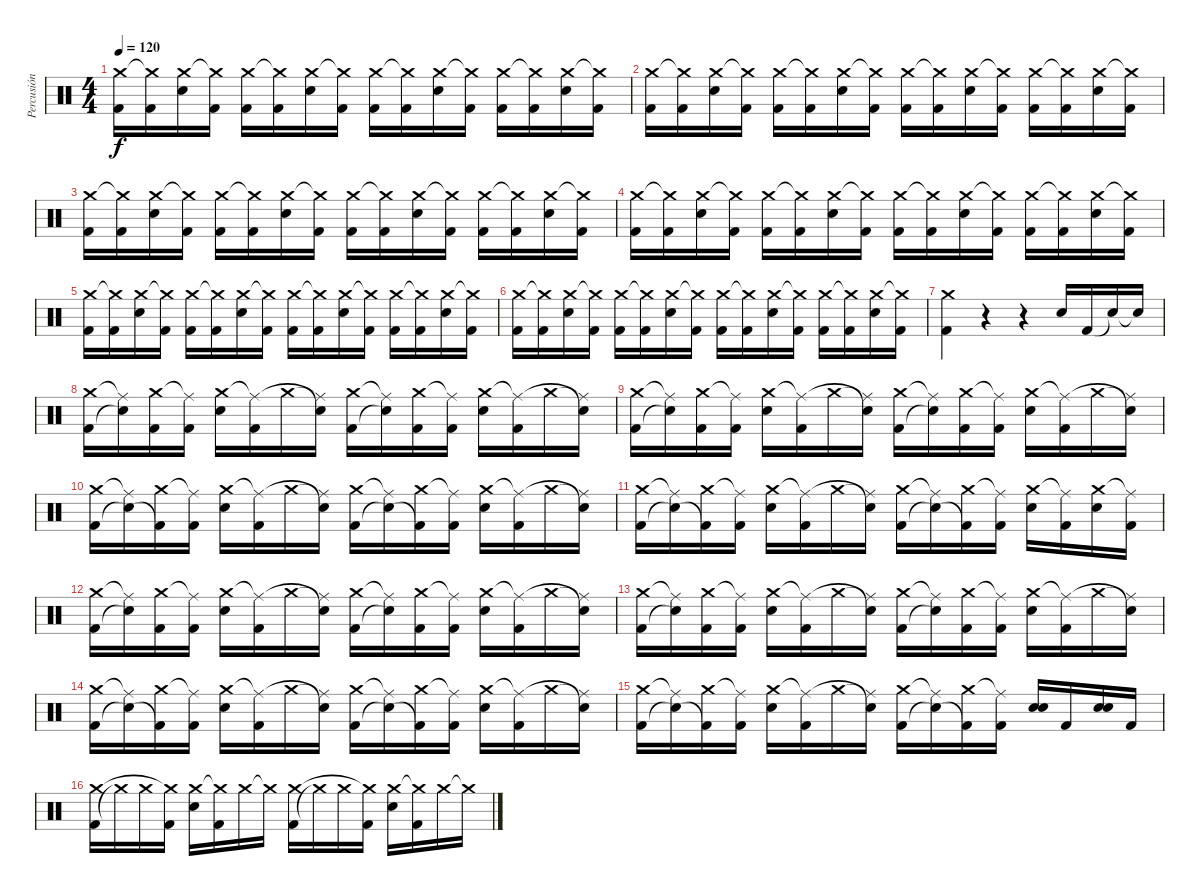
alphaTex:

\track ("Percusión" "Percusión") {instrument percussion}
\staff {score}
\articulation defaults
\ts (4 4)
\tempo 120
\clef neutral
\ks c
("Kick (hit) 2" "Crash medium (hit)").16{dy f} ("Kick (hit) 2" "Crash medium (hit)"{t}).16 ("Electric Snare (hit)" "Crash medium (hit)").16 ("Kick (hit) 2" "Crash medium (hit)"{t}).16 ("Kick (hit) 2" "Crash medium (hit)").16 ("Kick (hit) 2" "Crash medium (hit)"{t}).16 ("Electric Snare (hit)" "Crash medium (hit)").16 ("Kick (hit) 2" "Crash medium (hit)"{t}).16 ("Kick (hit) 2" "Crash medium (hit)").16 ("Kick (hit) 2" "Crash medium (hit)"{t}).16 ("Electric Snare (hit)" "Crash medium (hit)").16 ("Kick (hit) 2" "Crash medium (hit)"{t}).16 ("Kick (hit) 2" "Crash medium (hit)").16 ("Kick (hit) 2" "Crash medium (hit)"{t}).16 ("Electric Snare (hit)" "Crash medium (hit)").16 ("Kick (hit) 2" "Crash medium (hit)"{t}).16 |
("Kick (hit) 2" "Crash medium (hit)").16 ("Kick (hit) 2" "Crash medium (hit)"{t}).16 ("Electric Snare (hit)" "Crash medium (hit)").16 ("Kick (hit) 2" "Crash medium (hit)"{t}).16 ("Kick (hit) 2" "Crash medium (hit)").16 ("Kick (hit) 2" "Crash medium (hit)"{t}).16 ("Electric Snare (hit)" "Crash medium (hit)").16 ("Kick (hit) 2" "Crash medium (hit)"{t}).16 ("Kick (hit) 2" "Crash medium (hit)").16 ("Kick (hit) 2" "Crash medium (hit)"{t}).16 ("Electric Snare (hit)" "Crash medium (hit)").16 ("Kick (hit) 2" "Crash medium (hit)"{t}).16 ("Kick (hit) 2" "Crash medium (hit)").16 ("Kick (hit) 2" "Crash medium (hit)"{t}).16 ("Electric Snare (hit)" "Crash medium (hit)").16 ("Kick (hit) 2" "Crash medium (hit)"{t}).16 |
("Kick (hit) 2" "Crash medium (hit)").16 ("Kick (hit) 2" "Crash medium (hit)"{t}).16 ("Electric Snare (hit)" "Crash medium (hit)").16 ("Kick (hit) 2" "Crash medium (hit)"{t}).16 ("Kick (hit) 2" "Crash medium (hit)").16 ("Kick (hit) 2" "Crash medium (hit)"{t}).16 ("Electric Snare (hit)" "Crash medium (hit)").16 ("Kick (hit) 2" "Crash medium (hit)"{t}).16 ("Kick (hit) 2" "Crash medium (hit)").16 ("Kick (hit) 2" "Crash medium (hit)"{t}).16 ("Electric Snare (hit)" "Crash medium (hit)").16 ("Kick (hit) 2" "Crash medium (hit)"{t}).16 ("Kick (hit) 2" "Crash medium (hit)").16 ("Kick (hit) 2" "Crash medium (hit)"{t}).16 ("Electric Snare (hit)" "Crash medium (hit)").16 ("Kick (hit) 2" "Crash medium (hit)"{t}).16 |
("Kick (hit) 2" "Crash medium (hit)").16 ("Kick (hit) 2" "Crash medium (hit)"{t}).16 ("Electric Snare (hit)" "Crash medium (hit)").16 ("Kick (hit) 2" "Crash medium (hit)"{t}).16 ("Kick (hit) 2" "Crash medium (hit)").16 ("Kick (hit) 2" "Crash medium (hit)"{t}).16 ("Electric Snare (hit)" "Crash medium (hit)").16 ("Kick (hit) 2" "Crash medium (hit)"{t}).16 ("Kick (hit) 2" "Crash medium (hit)").16 ("Kick (hit) 2" "Crash medium (hit)"{t}).16 ("Electric Snare (hit)" "Crash medium (hit)").16 ("Kick (hit) 2" "Crash medium (hit)"{t}).16 ("Kick (hit) 2" "Crash medium (hit)").16 ("Kick (hit) 2" "Crash medium (hit)"{t}).16 ("Electric Snare (hit)" "Crash medium (hit)").16 ("Kick (hit) 2" "Crash medium (hit)"{t}).16 |
("Kick (hit) 2" "Crash medium (hit)").16 ("Kick (hit) 2" "Crash medium (hit)"{t}).16 ("Electric Snare (hit)" "Crash medium (hit)").16 ("Kick (hit) 2" "Crash medium (hit)"{t}).16 ("Kick (hit) 2" "Crash medium (hit)").16 ("Kick (hit) 2" "Crash medium (hit)"{t}).16 ("Electric Snare (hit)" "Crash medium (hit)").16 ("Kick (hit) 2" "Crash medium (hit)"{t}).16 ("Kick (hit) 2" "Crash medium (hit)").16 ("Kick (hit) 2" "Crash medium (hit)"{t}).16 ("Electric Snare (hit)" "Crash medium (hit)").16 ("Kick (hit) 2" "Crash medium (hit)"{t}).16 ("Kick (hit) 2" "Crash medium (hit)").16 ("Kick (hit) 2" "Crash medium (hit)"{t}).16 ("Electric Snare (hit)" "Crash medium (hit)").16 ("Kick (hit) 2" "Crash medium (hit)"{t}).16 |
("Kick (hit) 2" "Crash medium (hit)").16 ("Kick (hit) 2" "Crash medium (hit)"{t}).16 ("Electric Snare (hit)" "Crash medium (hit)").16 ("Kick (hit) 2" "Crash medium (hit)"{t}).16 ("Kick (hit) 2" "Crash medium (hit)").16 ("Kick (hit) 2" "Crash medium (hit)"{t}).16 ("Electric Snare (hit)" "Crash medium (hit)").16 ("Kick (hit) 2" "Crash medium (hit)"{t}).16 ("Kick (hit) 2" "Crash medium (hit)").16 ("Kick (hit) 2" "Crash medium (hit)"{t}).16 ("Electric Snare (hit)" "Crash medium (hit)").16 ("Kick (hit) 2" "Crash medium (hit)"{t}).16 ("Kick (hit) 2" "Crash medium (hit)").16 ("Kick (hit) 2" "Crash medium (hit)"{t}).16 ("Electric Snare (hit)" "Crash medium (hit)").16 ("Kick (hit) 2" "Crash medium (hit)"{t}).16 |
("Crash medium (hit)" "Kick (hit) 2").4 r.4 r.4 "Electric Snare (hit)".16 "Kick (hit) 2".16 "Snare (hit)"{t}.16 "Snare (hit)"{t}.16 |
("Kick (hit) 2" "Crash medium (hit)").16 ("Snare (hit)"{t} "Ride (middle)"{t}).16 ("Kick (hit) 2" "Crash medium (hit)").16 ("Kick (hit) 2" "Ride (middle)"{t}).16 ("Electric Snare (hit)" "Crash medium (hit)").16 ("Kick (hit) 2" "Ride (middle)"{t}).16 "Crash medium (hit)".16 ("Snare (hit)"{t} "Ride (middle)"{t}).16 ("Kick (hit) 2" "Crash medium (hit)").16 ("Snare (hit)"{t} "Ride (middle)"{t}).16 ("Kick (hit) 2" "Crash medium (hit)").16 ("Kick (hit) 2" "Ride (middle)"{t}).16 ("Electric Snare (hit)" "Crash medium (hit)").16 ("Kick (hit) 2" "Ride (middle)"{t}).16 "Crash medium (hit)".16 ("Snare (hit)"{t} "Ride (middle)"{t}).16 |
("Kick (hit) 2" "Crash medium (hit)").16 ("Snare (hit)"{t} "Ride (middle)"{t}).16 ("Kick (hit) 2" "Crash medium (hit)").16 ("Kick (hit) 2" "Ride (middle)"{t}).16 ("Electric Snare (hit)" "Crash medium (hit)").16 ("Kick (hit) 2" "Ride (middle)"{t}).16 "Crash medium (hit)".16 ("Snare (hit)"{t} "Ride (middle)"{t}).16 ("Kick (hit) 2" "Crash medium (hit)").16 ("Snare (hit)"{t} "Ride (middle)"{t}).16 ("Kick (hit) 2" "Crash medium (hit)").16 ("Kick (hit) 2" "Ride (middle)"{t}).16 ("Electric Snare (hit)" "Crash medium (hit)").16 ("Kick (hit) 2" "Ride (middle)"{t}).16 "Crash medium (hit)".16 ("Snare (hit)"{t} "Ride (middle)"{t}).16 |
("Kick (hit) 2" "Crash medium (hit)").16 ("Snare (hit)"{t} "Ride (middle)"{t}).16 ("Kick (hit) 2"{t} "Crash medium (hit)").16 ("Kick (hit) 2" "Ride (middle)"{t}).16 ("Electric Snare (hit)" "Crash medium (hit)").16 ("Kick (hit) 2" "Ride (middle)"{t}).16 "Crash medium (hit)".16 ("Snare (hit)"{t} "Ride (middle)"{t}).16 ("Kick (hit) 2" "Crash medium (hit)").16 ("Snare (hit)"{t} "Ride (middle)"{t}).16 ("Kick (hit) 2"{t} "Crash medium (hit)").16 ("Kick (hit) 2" "Ride (middle)"{t}).16 ("Electric Snare (hit)" "Crash medium (hit)").16 ("Kick (hit) 2" "Ride (middle)"{t}).16 "Crash medium (hit)".16 ("Snare (hit)"{t} "Ride (middle)"{t}).16 |
("Kick (hit) 2" "Crash medium (hit)").16 ("Snare (hit)"{t} "Ride (middle)"{t}).16 ("Kick (hit) 2"{t} "Crash medium (hit)").16 ("Kick (hit) 2" "Ride (middle)"{t}).16 ("Electric Snare (hit)" "Crash medium (hit)").16 ("Kick (hit) 2" "Ride (middle)"{t}).16 "Crash medium (hit)".16 ("Snare (hit)"{t} "Ride (middle)"{t}).16 ("Kick (hit) 2" "Crash medium (hit)").16 ("Snare (hit)"{t} "Ride (middle)"{t}).16 ("Kick (hit) 2"{t} "Crash medium (hit)").16 ("Kick (hit) 2" "Ride (middle)"{t}).16 ("Electric Snare (hit)" "Crash medium (hit)").16 ("Kick (hit) 2" "Ride (middle)"{t}).16 ("Electric Snare (hit)" "Crash medium (hit)").16 ("Kick (hit) 2" "Ride (middle)"{t}).16 |
("Kick (hit) 2" "Crash medium (hit)").16 ("Snare (hit)"{t} "Ride (middle)"{t}).16 ("Kick (hit) 2" "Crash medium (hit)").16 ("Kick (hit) 2" "Ride (middle)"{t}).16 ("Electric Snare (hit)" "Crash medium (hit)").16 ("Kick (hit) 2" "Ride (middle)"{t}).16 "Crash medium (hit)".16 ("Snare (hit)"{t} "Ride (middle)"{t}).16 ("Kick (hit) 2" "Crash medium (hit)").16 ("Snare (hit)"{t} "Ride (middle)"{t}).16 ("Kick (hit) 2" "Crash medium (hit)").16 ("Kick (hit) 2" "Ride (middle)"{t}).16 ("Electric Snare (hit)" "Crash medium (hit)").16 ("Kick (hit) 2" "Ride (middle)"{t}).16 "Crash medium (hit)".16 ("Snare (hit)"{t} "Ride (middle)"{t}).16 |
("Kick (hit) 2" "Crash medium (hit)").16 ("Snare (hit)"{t} "Ride (middle)"{t}).16 ("Kick (hit) 2" "Crash medium (hit)").16 ("Kick (hit) 2" "Ride (middle)"{t}).16 ("Electric Snare (hit)" "Crash medium (hit)").16 ("Kick (hit) 2" "Ride (middle)"{t}).16 "Crash medium (hit)".16 ("Snare (hit)"{t} "Ride (middle)"{t}).16 ("Kick (hit) 2" "Crash medium (hit)").16 ("Snare (hit)"{t} "Ride (middle)"{t}).16 ("Kick (hit) 2" "Crash medium (hit)").16 ("Kick (hit) 2" "Ride (middle)"{t}).16 ("Electric Snare (hit)" "Crash medium (hit)").16 ("Kick (hit) 2" "Ride (middle)"{t}).16 "Crash medium (hit)".16 ("Snare (hit)"{t} "Ride (middle)"{t}).16 |
("Kick (hit) 2" "Crash medium (hit)").16 ("Snare (hit)"{t} "Ride (middle)"{t}).16 ("Kick (hit) 2"{t} "Crash medium (hit)").16 ("Kick (hit) 2" "Ride (middle)"{t}).16 ("Electric Snare (hit)" "Crash medium (hit)").16 ("Kick (hit) 2" "Ride (middle)"{t}).16 "Crash medium (hit)".16 ("Snare (hit)"{t} "Ride (middle)"{t}).16 ("Kick (hit) 2" "Crash medium (hit)").16 ("Snare (hit)"{t} "Ride (middle)"{t}).16 ("Kick (hit) 2"{t} "Crash medium (hit)").16 ("Kick (hit) 2" "Ride (middle)"{t}).16 ("Electric Snare (hit)" "Crash medium (hit)").16 ("Kick (hit) 2" "Ride (middle)"{t}).16 "Crash medium (hit)".16 ("Snare (hit)"{t} "Ride (middle)"{t}).16 |
("Kick (hit) 2" "Crash medium (hit)").16 ("Snare (hit)"{t} "Ride (middle)"{t}).16 ("Kick (hit) 2"{t} "Crash medium (hit)").16 ("Kick (hit) 2" "Ride (middle)"{t}).16 ("Electric Snare (hit)" "Crash medium (hit)").16 ("Kick (hit) 2" "Ride (middle)"{t}).16 "Crash medium (hit)".16 ("Snare (hit)"{t} "Ride (middle)"{t}).16 ("Kick (hit) 2" "Crash medium (hit)").16 ("Snare (hit)"{t} "Ride (middle)"{t}).16 ("Kick (hit) 2"{t} "Crash medium (hit)").16 ("Kick (hit) 2" "Ride (middle)"{t}).16 ("Electric Snare (hit)" "Electric Snare (hit)").16 "Kick (hit) 2".16 ("Electric Snare (hit)" "Electric Snare (hit)").16 "Kick (hit) 2".16 |
("Kick (hit) 2" "Crash medium (hit)").16 "Crash medium (hit)"{t}.16 "Crash medium (hit)".16 ("Kick (hit) 2" "Crash medium (hit)"{t}).16 ("Electric Snare (hit)" "Crash medium (hit)").16 ("Kick (hit) 2" "Crash medium (hit)"{t}).16 "Crash medium (hit)".16 "Crash medium (hit)"{t}.16 ("Kick (hit) 2" "Crash medium (hit)").16 "Crash medium (hit)"{t}.16 "Crash medium (hit)".16 ("Kick (hit) 2" "Crash medium (hit)"{t}).16 ("Electric Snare (hit)" "Crash medium (hit)").16 ("Kick (hit) 2" "Crash medium (hit)"{t}).16 "Crash medium (hit)".16 "Crash medium (hit)"{t}.16
